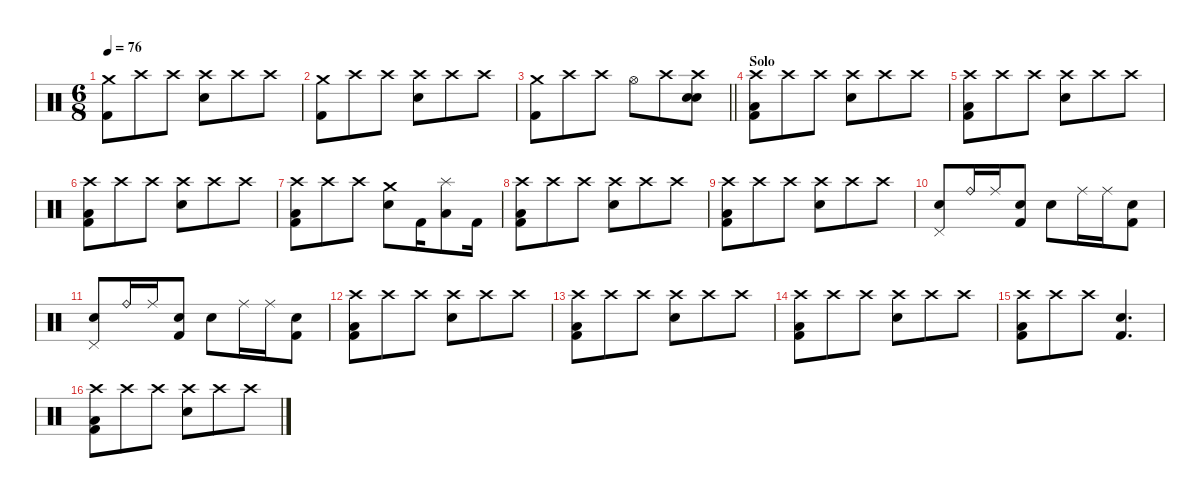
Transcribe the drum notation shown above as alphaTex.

\defaultSystemsLayout 4
\hideDynamics
\bracketExtendMode nobrackets
\singleTrackTrackNamePolicy hidden
\multiTrackTrackNamePolicy hidden
\firstSystemTrackNameMode fullname
\firstSystemTrackNameOrientation horizontal
\otherSystemsTrackNameOrientation horizontal
\track ("Drums" "drm.") {instrument percussion}
\staff {score}
\articulation defaults
\ts (6 8)
\tempo 76
\clef neutral
\ks c
("Crash medium (hit)" "Kick (hit) 2").8{dy f beam Down} "Crash high (hit)".8{beam Down} "Crash high (hit)".8{beam Down} ("Crash high (hit)" "Snare (hit) 2").8{beam Down} "Crash high (hit)".8{beam Down} "Crash high (hit)".8{beam Down} |
("Crash medium (hit)" "Kick (hit) 2").8{beam Down} "Crash high (hit)".8{beam Down} "Crash high (hit)".8{beam Down} ("Crash high (hit)" "Snare (hit) 2").8{beam Down} "Crash high (hit)".8{beam Down} "Crash high (hit)".8{beam Down} |
\barLineRight lightlight
("Crash medium (hit)" "Kick (hit) 2").8{beam Down} "Crash high (hit)".8{beam Down} "Crash high (hit)".8{beam Down} "Hi-Hat (open)".8{beam Down} "Crash high (hit)".8{beam Down} ("Crash high (hit)" "Snare (hit) 2" "Snare (hit) 2").8{beam Down} |
\section ("" "Solo")
("Crash high (hit)" "Low Floor Tom (hit)" "Kick (hit) 2").8{beam Down} "Crash high (hit)".8{beam Down} "Crash high (hit)".8{beam Down} ("Crash high (hit)" "Snare (hit) 2").8{beam Down} "Crash high (hit)".8{beam Down} "Crash high (hit)".8{beam Down} |
("Crash high (hit)" "Low Floor Tom (hit)" "Kick (hit) 2").8{beam Down} "Crash high (hit)".8{beam Down} "Crash high (hit)".8{beam Down} ("Crash high (hit)" "Snare (hit) 2").8{beam Down} "Crash high (hit)".8{beam Down} "Crash high (hit)".8{beam Down} |
("Crash high (hit)" "Low Floor Tom (hit)" "Kick (hit) 2").8{beam Down} "Crash high (hit)".8{beam Down} "Crash high (hit)".8{beam Down} ("Crash high (hit)" "Snare (hit) 2").8{beam Down} "Crash high (hit)".8{beam Down} "Crash high (hit)".8{beam Down} |
("Crash high (hit)" "Low Floor Tom (hit)" "Kick (hit) 2").8{beam Down} "Crash high (hit)".8{beam Down} "Crash high (hit)".8{beam Down} ("Crash medium (hit)" "Snare (hit) 2").8{beam Down} "Kick (hit) 2".16{beam Down} ("Splash (hit)" "Low Tom (hit)").8{beam Down} "Kick (hit) 2".16{beam Down} |
("Crash high (hit)" "Low Floor Tom (hit)" "Kick (hit) 2").8{beam Down} "Crash high (hit)".8{beam Down} "Crash high (hit)".8{beam Down} ("Crash high (hit)" "Snare (hit) 2").8{beam Down} "Crash high (hit)".8{beam Down} "Crash high (hit)".8{beam Down} |
("Crash high (hit)" "Low Floor Tom (hit)" "Kick (hit) 2").8{beam Down} "Crash high (hit)".8{beam Down} "Crash high (hit)".8{beam Down} ("Crash high (hit)" "Snare (hit) 2").8{beam Down} "Crash high (hit)".8{beam Down} "Crash high (hit)".8{beam Down} |
("Pedal Hi-Hat (hit)" "Snare (hit) 2").8{beam Up} "Ride (bell)".16{beam Up} "Ride (middle)".16{beam Up} ("Snare (hit) 2" "Kick (hit) 2").8{beam Up} "Snare (hit) 2".8{beam Down} "Ride (middle)".16{beam Down} "Ride (middle)".16{beam Down} ("Snare (hit) 2" "Kick (hit) 2").8{beam Down} |
("Pedal Hi-Hat (hit)" "Snare (hit) 2").8{beam Up} "Ride (bell)".16{beam Up} "Ride (middle)".16{beam Up} ("Snare (hit) 2" "Kick (hit) 2").8{beam Up} "Snare (hit) 2".8{beam Down} "Ride (middle)".16{beam Down} "Ride (middle)".16{beam Down} ("Snare (hit) 2" "Kick (hit) 2").8{beam Down} |
("Crash high (hit)" "Low Floor Tom (hit)" "Kick (hit) 2").8{beam Down} "Crash high (hit)".8{beam Down} "Crash high (hit)".8{beam Down} ("Crash high (hit)" "Snare (hit) 2").8{beam Down} "Crash high (hit)".8{beam Down} "Crash high (hit)".8{beam Down} |
("Crash high (hit)" "Low Floor Tom (hit)" "Kick (hit) 2").8{beam Down} "Crash high (hit)".8{beam Down} "Crash high (hit)".8{beam Down} ("Crash high (hit)" "Snare (hit) 2").8{beam Down} "Crash high (hit)".8{beam Down} "Crash high (hit)".8{beam Down} |
("Crash high (hit)" "Low Floor Tom (hit)" "Kick (hit) 2").8{beam Down} "Crash high (hit)".8{beam Down} "Crash high (hit)".8{beam Down} ("Crash high (hit)" "Snare (hit) 2").8{beam Down} "Crash high (hit)".8{beam Down} "Crash high (hit)".8{beam Down} |
("Crash high (hit)" "Low Floor Tom (hit)" "Kick (hit) 2").8{beam Down} "Crash high (hit)".8{beam Down} "Crash high (hit)".8{beam Down} ("Snare (hit) 2" "Kick (hit) 2").4{d beam Up} |
("Crash high (hit)" "Low Floor Tom (hit)" "Kick (hit) 2").8{beam Down} "Crash high (hit)".8{beam Down} "Crash high (hit)".8{beam Down} ("Crash high (hit)" "Snare (hit) 2").8{beam Down} "Crash high (hit)".8{beam Down} "Crash high (hit)".8{beam Down}
